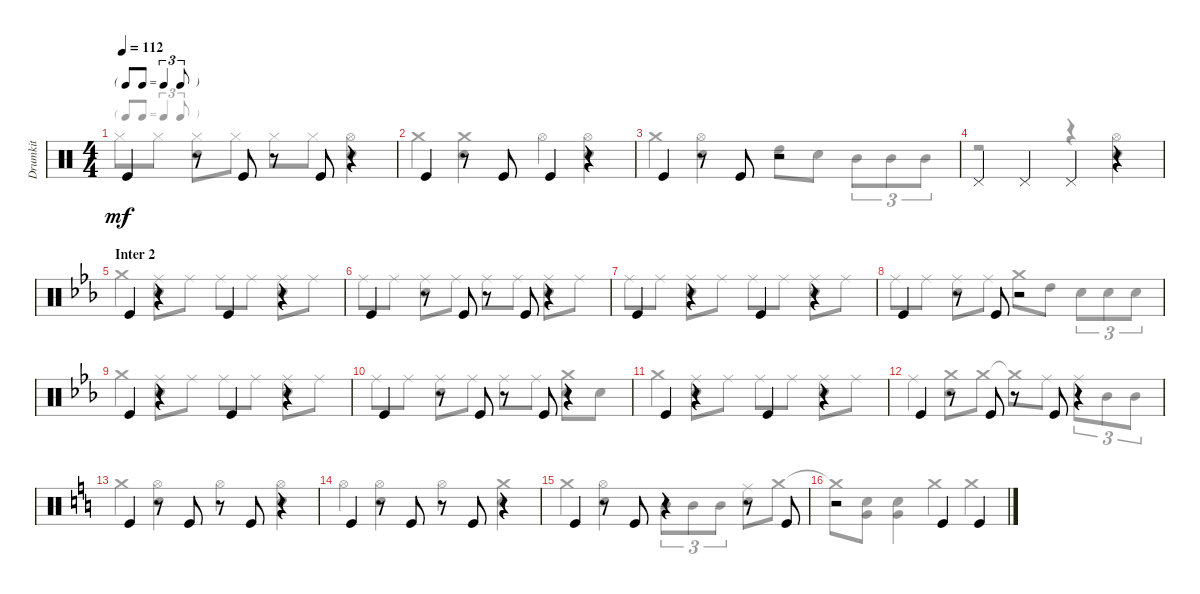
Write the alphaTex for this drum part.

\track ("Drumkit" "Drumkit") {instrument percussion}
\staff {score}
\articulation defaults
\voice
\ts (4 4)
\tf triplet8th
\tempo 112
\clef neutral
\ks c "Kick (hit)".4{dy mf}
r.8 "Kick (hit)".8 r.8 "Kick (hit)".8 r.4 |
"Kick (hit)".4 r.8 "Kick (hit)".8 "Kick (hit)".4 r.4 |
"Kick (hit)".4 r.8 "Kick (hit)".8 r.2 |
"Pedal Hi-Hat (hit)".4 "Pedal Hi-Hat (hit)".4 "Pedal Hi-Hat (hit)".4 r.4 |
\section ("" "Inter 2")
\ks eb "Kick (hit)".4
r.4 "Kick (hit)".4 r.4 |
"Kick (hit)".4 r.8 "Kick (hit)".8 r.8 "Kick (hit)".8 r.4 |
"Kick (hit)".4 r.4 "Kick (hit)".4 r.4 |
"Kick (hit)".4 r.8 "Kick (hit)".8 r.2 |
"Kick (hit)".4 r.4 "Kick (hit)".4 r.4 |
"Kick (hit)".4 r.8 "Kick (hit)".8 r.8 "Kick (hit)".8 r.4 |
"Kick (hit)".4 r.4 "Kick (hit)".4 r.4 |
"Kick (hit)".4 r.8 "Kick (hit)".8 r.8 "Kick (hit)".8 r.4 |
\ks c "Kick (hit)".4
r.8 "Kick (hit)".8 r.8 "Kick (hit)".8 r.4 |
"Kick (hit)".4 r.8 "Kick (hit)".8 r.8 "Kick (hit)".8 r.4 |
"Kick (hit)".4 r.8 "Kick (hit)".8 r.4 r.8 "Kick (hit)".8 |
r.2 "Kick (hit)".4 "Kick (hit)".4
\voice
\clef neutral
\ottava regular
\simile none
\ks c "Hi-Hat (closed)".8{dy mf} "Hi-Hat (closed)".8
("Hi-Hat (closed)" "Snare (hit) 2").8 "Hi-Hat (closed)".8 "Hi-Hat (closed)".8 "Hi-Hat (closed)".8 ("Hi-Hat (open)" "Snare (hit) 2").4 |
"Crash medium (hit)".4 ("Crash medium (hit)" "Snare (hit) 2").4 "Hi-Hat (open)".4 ("Hi-Hat (open)" "Snare (hit) 2").4 |
"Crash medium (hit)".4 ("Hi-Hat (open)" "Snare (hit) 2").4 "High Tom (hit)".8 "Snare (hit) 2".8 "Mid Tom (hit)".8{tu (3 2)} "Mid Tom (hit)".8{tu (3 2)} "Mid Tom (hit)".8{tu (3 2)} |
r.2 r.4 ("Hi-Hat (open)" "Snare (hit) 2").4 |
\ks eb "Crash medium (hit)".4
("Snare (hit) 2" "Ride (middle)").8 "Ride (middle)".8 "Ride (middle)".8 "Ride (middle)".8 ("Snare (hit) 2" "Ride (middle)").8 "Ride (middle)".8 |
"Ride (middle)".8 "Ride (middle)".8 ("Ride (middle)" "Snare (hit) 2").8 "Ride (middle)".8 "Ride (middle)".8 "Ride (middle)".8 ("Ride (middle)" "Snare (hit) 2").8 "Ride (middle)".8 |
"Ride (middle)".8 "Ride (middle)".8 ("Ride (middle)" "Snare (hit) 2").8 "Ride (middle)".8 "Ride (middle)".8 "Ride (middle)".8 ("Ride (middle)" "Snare (hit) 2").8 "Ride (middle)".8 |
"Ride (middle)".8 "Ride (middle)".8 ("Ride (middle)" "Snare (hit) 2").8 "Ride (middle)".8 "Crash medium (hit)".8 "High Tom (hit)".8 "Snare (hit) 2".8{tu (3 2)} "Snare (hit) 2".8{tu (3 2)} "Snare (hit) 2".8{tu (3 2)} |
"Crash medium (hit)".4 ("Ride (middle)" "Snare (hit) 2").8 "Ride (middle)".8 "Ride (middle)".8 "Ride (middle)".8 ("Ride (middle)" "Snare (hit) 2").8 "Ride (middle)".8 |
"Ride (middle)".8 "Ride (middle)".8 ("Ride (middle)" "Snare (hit) 2").8 "Ride (middle)".8 "Ride (middle)".8 "Ride (middle)".8 ("Crash medium (hit)" "Snare (hit) 2").8 "Snare (hit) 2".8 |
"Crash medium (hit)".4 ("Ride (middle)" "Snare (hit) 2").8 "Ride (middle)".8 "Ride (middle)".8 "Ride (middle)".8 ("Ride (middle)" "Snare (hit) 2").8 "Ride (middle)".8 |
"Ride (middle)".4 ("Crash medium (hit)" "Snare (hit) 2").8 "Crash medium (hit)".8 "Crash medium (hit)"{t}.8 "Ride (middle)".8 "Ride (middle)".8{tu (3 2)} "Mid Tom (hit)".8{tu (3 2)} "Mid Tom (hit)".8{tu (3 2)} |
\ks c "Crash medium (hit)".4
("Hi-Hat (open)" "Snare (hit) 2").4 "Hi-Hat (open)".4 ("Hi-Hat (open)" "Snare (hit) 2").4 |
"Hi-Hat (open)".4 ("Hi-Hat (open)" "Snare (hit) 2").4 "Hi-Hat (open)".4 ("Crash medium (hit)" "Snare (hit) 2").4 |
"Crash medium (hit)".4 ("Hi-Hat (open)" "Snare (hit) 2").4 "Mid Tom (hit)".8{tu (3 2)} "Mid Tom (hit)".8{tu (3 2)} "Mid Tom (hit)".8{tu (3 2)} ("Snare (hit) 2" "Ride (middle)").8 "Crash medium (hit)".8 |
"Crash medium (hit)"{t}.8 ("Snare (hit) 2" "Very Low Tom (hit)").8 ("Very Low Tom (hit)" "Snare (hit) 2").4 "Crash medium (hit)".4 "Crash medium (hit)".4
